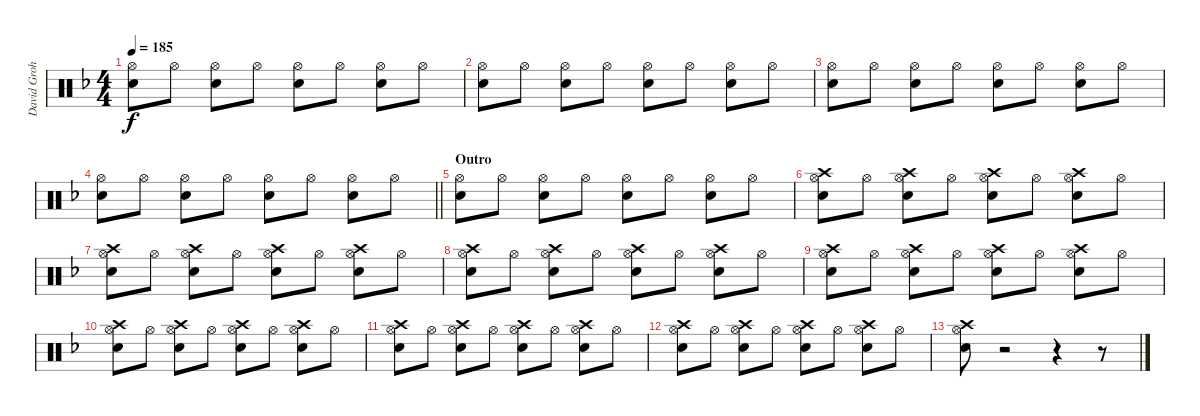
\track ("David Grohl/Alfredo Ortiz" "David Groh") {instrument percussion}
\staff {score}
\articulation defaults
\ts (4 4)
\tempo 185
\clef neutral
\ks f
("Snare (hit) 2" "Hi-Hat (open)").8{dy f} "Hi-Hat (open)".8 ("Snare (hit) 2" "Hi-Hat (open)").8 "Hi-Hat (open)".8 ("Snare (hit) 2" "Hi-Hat (open)").8 "Hi-Hat (open)".8 ("Snare (hit) 2" "Hi-Hat (open)").8 "Hi-Hat (open)".8 |
("Snare (hit) 2" "Hi-Hat (open)").8 "Hi-Hat (open)".8 ("Snare (hit) 2" "Hi-Hat (open)").8 "Hi-Hat (open)".8 ("Snare (hit) 2" "Hi-Hat (open)").8 "Hi-Hat (open)".8 ("Snare (hit) 2" "Hi-Hat (open)").8 "Hi-Hat (open)".8 |
("Snare (hit) 2" "Hi-Hat (open)").8 "Hi-Hat (open)".8 ("Snare (hit) 2" "Hi-Hat (open)").8 "Hi-Hat (open)".8 ("Snare (hit) 2" "Hi-Hat (open)").8 "Hi-Hat (open)".8 ("Snare (hit) 2" "Hi-Hat (open)").8 "Hi-Hat (open)".8 |
\barLineRight lightlight
("Snare (hit) 2" "Hi-Hat (open)").8 "Hi-Hat (open)".8 ("Snare (hit) 2" "Hi-Hat (open)").8 "Hi-Hat (open)".8 ("Snare (hit) 2" "Hi-Hat (open)").8 "Hi-Hat (open)".8 ("Snare (hit) 2" "Hi-Hat (open)").8 "Hi-Hat (open)".8 |
\section ("" "Outro")
("Snare (hit) 2" "Hi-Hat (open)").8 "Hi-Hat (open)".8 ("Snare (hit) 2" "Hi-Hat (open)").8 "Hi-Hat (open)".8 ("Snare (hit) 2" "Hi-Hat (open)").8 "Hi-Hat (open)".8 ("Snare (hit) 2" "Hi-Hat (open)").8 "Hi-Hat (open)".8 |
("Crash high (hit)" "Snare (hit) 2" "Hi-Hat (open)").8 "Hi-Hat (open)".8 ("Crash high (hit)" "Snare (hit) 2" "Hi-Hat (open)").8 "Hi-Hat (open)".8 ("Crash high (hit)" "Snare (hit) 2" "Hi-Hat (open)").8 "Hi-Hat (open)".8 ("Crash high (hit)" "Snare (hit) 2" "Hi-Hat (open)").8 "Hi-Hat (open)".8 |
("Crash high (hit)" "Snare (hit) 2" "Hi-Hat (open)").8 "Hi-Hat (open)".8 ("Crash high (hit)" "Snare (hit) 2" "Hi-Hat (open)").8 "Hi-Hat (open)".8 ("Crash high (hit)" "Snare (hit) 2" "Hi-Hat (open)").8 "Hi-Hat (open)".8 ("Crash high (hit)" "Snare (hit) 2" "Hi-Hat (open)").8 "Hi-Hat (open)".8 |
("Crash high (hit)" "Snare (hit) 2" "Hi-Hat (open)").8 "Hi-Hat (open)".8 ("Crash high (hit)" "Snare (hit) 2" "Hi-Hat (open)").8 "Hi-Hat (open)".8 ("Crash high (hit)" "Snare (hit) 2" "Hi-Hat (open)").8 "Hi-Hat (open)".8 ("Crash high (hit)" "Snare (hit) 2" "Hi-Hat (open)").8 "Hi-Hat (open)".8 |
("Crash high (hit)" "Snare (hit) 2" "Hi-Hat (open)").8 "Hi-Hat (open)".8 ("Crash high (hit)" "Snare (hit) 2" "Hi-Hat (open)").8 "Hi-Hat (open)".8 ("Crash high (hit)" "Snare (hit) 2" "Hi-Hat (open)").8 "Hi-Hat (open)".8 ("Crash high (hit)" "Snare (hit) 2" "Hi-Hat (open)").8 "Hi-Hat (open)".8 |
("Crash high (hit)" "Snare (hit) 2" "Hi-Hat (open)").8 "Hi-Hat (open)".8 ("Crash high (hit)" "Snare (hit) 2" "Hi-Hat (open)").8 "Hi-Hat (open)".8 ("Crash high (hit)" "Snare (hit) 2" "Hi-Hat (open)").8 "Hi-Hat (open)".8 ("Crash high (hit)" "Snare (hit) 2" "Hi-Hat (open)").8 "Hi-Hat (open)".8 |
("Crash high (hit)" "Snare (hit) 2" "Hi-Hat (open)").8 "Hi-Hat (open)".8 ("Crash high (hit)" "Snare (hit) 2" "Hi-Hat (open)").8 "Hi-Hat (open)".8 ("Crash high (hit)" "Snare (hit) 2" "Hi-Hat (open)").8 "Hi-Hat (open)".8 ("Crash high (hit)" "Snare (hit) 2" "Hi-Hat (open)").8 "Hi-Hat (open)".8 |
("Crash high (hit)" "Snare (hit) 2" "Hi-Hat (open)").8 "Hi-Hat (open)".8 ("Crash high (hit)" "Snare (hit) 2" "Hi-Hat (open)").8 "Hi-Hat (open)".8 ("Crash high (hit)" "Snare (hit) 2" "Hi-Hat (open)").8 "Hi-Hat (open)".8 ("Crash high (hit)" "Snare (hit) 2" "Hi-Hat (open)").8 "Hi-Hat (open)".8 |
("Crash high (hit)" "Snare (hit) 2" "Hi-Hat (open)").8 r.2 r.4 r.8
